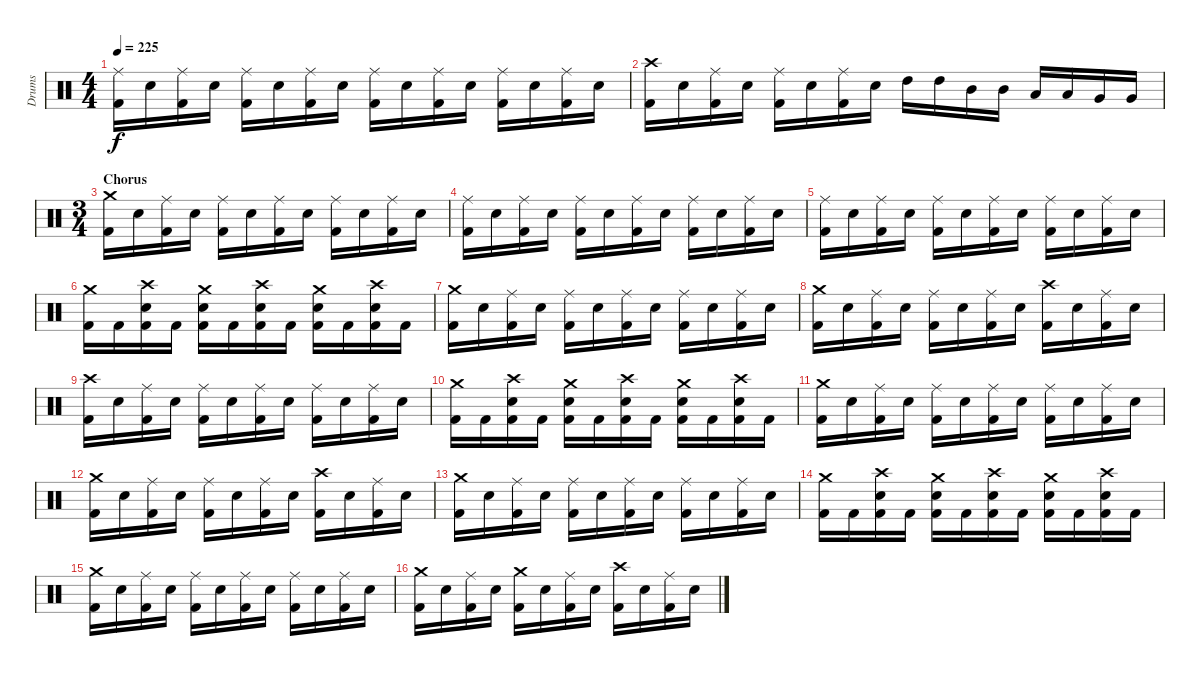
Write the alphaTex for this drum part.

\track ("Drums" "Drums") {instrument percussion}
\staff {score}
\articulation defaults
\ts (4 4)
\tempo 225
\clef neutral
\ks c
("Kick (hit) 2" "Ride (middle)").16{dy f} "Electric Snare (hit)".16 ("Kick (hit) 2" "Ride (middle)").16 "Electric Snare (hit)".16 ("Kick (hit) 2" "Ride (middle)").16 "Electric Snare (hit)".16 ("Kick (hit) 2" "Ride (middle)").16 "Electric Snare (hit)".16 ("Kick (hit) 2" "Ride (middle)").16 "Electric Snare (hit)".16 ("Kick (hit) 2" "Ride (middle)").16 "Electric Snare (hit)".16 ("Kick (hit) 2" "Ride (middle)").16 "Electric Snare (hit)".16 ("Kick (hit) 2" "Ride (middle)").16 "Electric Snare (hit)".16 |
("Kick (hit) 2" "Crash high (hit)").16 "Electric Snare (hit)".16 ("Kick (hit) 2" "Ride (middle)").16 "Electric Snare (hit)".16 ("Kick (hit) 2" "Ride (middle)").16 "Electric Snare (hit)".16 ("Kick (hit) 2" "Ride (middle)").16 "Electric Snare (hit)".16 "High Tom (hit)".16 "High Tom (hit)".16 "Mid Tom (hit)".16 "Mid Tom (hit)".16 "Low Tom (hit)".16 "Low Tom (hit)".16 "Very Low Tom (hit)".16 "Very Low Tom (hit)".16 |
\ts (3 4)
\section ("" "Chorus")
("Kick (hit) 2" "Crash medium (hit)").16 "Electric Snare (hit)".16 ("Kick (hit) 2" "Ride (middle)").16 "Electric Snare (hit)".16 ("Kick (hit) 2" "Ride (middle)").16 "Electric Snare (hit)".16 ("Kick (hit) 2" "Ride (middle)").16 "Electric Snare (hit)".16 ("Kick (hit) 2" "Ride (middle)").16 "Electric Snare (hit)".16 ("Kick (hit) 2" "Ride (middle)").16 "Electric Snare (hit)".16 |
("Kick (hit) 2" "Ride (middle)").16 "Electric Snare (hit)".16 ("Kick (hit) 2" "Ride (middle)").16 "Electric Snare (hit)".16 ("Kick (hit) 2" "Ride (middle)").16 "Electric Snare (hit)".16 ("Kick (hit) 2" "Ride (middle)").16 "Electric Snare (hit)".16 ("Kick (hit) 2" "Ride (middle)").16 "Electric Snare (hit)".16 ("Kick (hit) 2" "Ride (middle)").16 "Electric Snare (hit)".16 |
("Kick (hit) 2" "Ride (middle)").16 "Electric Snare (hit)".16 ("Kick (hit) 2" "Ride (middle)").16 "Electric Snare (hit)".16 ("Kick (hit) 2" "Ride (middle)").16 "Electric Snare (hit)".16 ("Kick (hit) 2" "Ride (middle)").16 "Electric Snare (hit)".16 ("Kick (hit) 2" "Ride (middle)").16 "Electric Snare (hit)".16 ("Kick (hit) 2" "Ride (middle)").16 "Electric Snare (hit)".16 |
("Kick (hit) 2" "Crash medium (hit)").16 "Kick (hit) 2".16 ("Kick (hit) 2" "Electric Snare (hit)" "Crash high (hit)").16 "Kick (hit) 2".16 ("Kick (hit) 2" "Electric Snare (hit)" "Crash medium (hit)").16 "Kick (hit) 2".16 ("Kick (hit) 2" "Electric Snare (hit)" "Crash high (hit)").16 "Kick (hit) 2".16 ("Kick (hit) 2" "Electric Snare (hit)" "Crash medium (hit)").16 "Kick (hit) 2".16 ("Kick (hit) 2" "Electric Snare (hit)" "Crash high (hit)").16 "Kick (hit) 2".16 |
("Kick (hit) 2" "Crash medium (hit)").16 "Electric Snare (hit)".16 ("Kick (hit) 2" "Ride (middle)").16 "Electric Snare (hit)".16 ("Kick (hit) 2" "Ride (middle)").16 "Electric Snare (hit)".16 ("Kick (hit) 2" "Ride (middle)").16 "Electric Snare (hit)".16 ("Kick (hit) 2" "Ride (middle)").16 "Electric Snare (hit)".16 ("Kick (hit) 2" "Ride (middle)").16 "Electric Snare (hit)".16 |
("Kick (hit) 2" "Crash medium (hit)").16 "Electric Snare (hit)".16 ("Kick (hit) 2" "Ride (middle)").16 "Electric Snare (hit)".16 ("Kick (hit) 2" "Ride (middle)").16 "Electric Snare (hit)".16 ("Kick (hit) 2" "Ride (middle)").16 "Electric Snare (hit)".16 ("Kick (hit) 2" "Crash high (hit)").16 "Electric Snare (hit)".16 ("Kick (hit) 2" "Ride (middle)").16 "Electric Snare (hit)".16 |
("Kick (hit) 2" "Crash high (hit)").16 "Electric Snare (hit)".16 ("Kick (hit) 2" "Ride (middle)").16 "Electric Snare (hit)".16 ("Kick (hit) 2" "Ride (middle)").16 "Electric Snare (hit)".16 ("Kick (hit) 2" "Ride (middle)").16 "Electric Snare (hit)".16 ("Kick (hit) 2" "Ride (middle)").16 "Electric Snare (hit)".16 ("Kick (hit) 2" "Ride (middle)").16 "Electric Snare (hit)".16 |
("Kick (hit) 2" "Crash medium (hit)").16 "Kick (hit) 2".16 ("Kick (hit) 2" "Electric Snare (hit)" "Crash high (hit)").16 "Kick (hit) 2".16 ("Kick (hit) 2" "Electric Snare (hit)" "Crash medium (hit)").16 "Kick (hit) 2".16 ("Kick (hit) 2" "Electric Snare (hit)" "Crash high (hit)").16 "Kick (hit) 2".16 ("Kick (hit) 2" "Electric Snare (hit)" "Crash medium (hit)").16 "Kick (hit) 2".16 ("Kick (hit) 2" "Electric Snare (hit)" "Crash high (hit)").16 "Kick (hit) 2".16 |
("Kick (hit) 2" "Crash medium (hit)").16 "Electric Snare (hit)".16 ("Kick (hit) 2" "Ride (middle)").16 "Electric Snare (hit)".16 ("Kick (hit) 2" "Ride (middle)").16 "Electric Snare (hit)".16 ("Kick (hit) 2" "Ride (middle)").16 "Electric Snare (hit)".16 ("Kick (hit) 2" "Ride (middle)").16 "Electric Snare (hit)".16 ("Kick (hit) 2" "Ride (middle)").16 "Electric Snare (hit)".16 |
("Kick (hit) 2" "Crash medium (hit)").16 "Electric Snare (hit)".16 ("Kick (hit) 2" "Ride (middle)").16 "Electric Snare (hit)".16 ("Kick (hit) 2" "Ride (middle)").16 "Electric Snare (hit)".16 ("Kick (hit) 2" "Ride (middle)").16 "Electric Snare (hit)".16 ("Kick (hit) 2" "Crash high (hit)").16 "Electric Snare (hit)".16 ("Kick (hit) 2" "Ride (middle)").16 "Electric Snare (hit)".16 |
("Kick (hit) 2" "Crash medium (hit)").16 "Electric Snare (hit)".16 ("Kick (hit) 2" "Ride (middle)").16 "Electric Snare (hit)".16 ("Kick (hit) 2" "Ride (middle)").16 "Electric Snare (hit)".16 ("Kick (hit) 2" "Ride (middle)").16 "Electric Snare (hit)".16 ("Kick (hit) 2" "Ride (middle)").16 "Electric Snare (hit)".16 ("Kick (hit) 2" "Ride (middle)").16 "Electric Snare (hit)".16 |
("Kick (hit) 2" "Crash medium (hit)").16 "Kick (hit) 2".16 ("Kick (hit) 2" "Electric Snare (hit)" "Crash high (hit)").16 "Kick (hit) 2".16 ("Kick (hit) 2" "Electric Snare (hit)" "Crash medium (hit)").16 "Kick (hit) 2".16 ("Kick (hit) 2" "Electric Snare (hit)" "Crash high (hit)").16 "Kick (hit) 2".16 ("Kick (hit) 2" "Electric Snare (hit)" "Crash medium (hit)").16 "Kick (hit) 2".16 ("Kick (hit) 2" "Electric Snare (hit)" "Crash high (hit)").16 "Kick (hit) 2".16 |
("Kick (hit) 2" "Crash medium (hit)").16 "Electric Snare (hit)".16 ("Kick (hit) 2" "Ride (middle)").16 "Electric Snare (hit)".16 ("Kick (hit) 2" "Ride (middle)").16 "Electric Snare (hit)".16 ("Kick (hit) 2" "Ride (middle)").16 "Electric Snare (hit)".16 ("Kick (hit) 2" "Ride (middle)").16 "Electric Snare (hit)".16 ("Kick (hit) 2" "Ride (middle)").16 "Electric Snare (hit)".16 |
("Kick (hit) 2" "Crash medium (hit)").16 "Electric Snare (hit)".16 ("Kick (hit) 2" "Ride (middle)").16 "Electric Snare (hit)".16 ("Kick (hit) 2" "Crash medium (hit)").16 "Electric Snare (hit)".16 ("Kick (hit) 2" "Ride (middle)").16 "Electric Snare (hit)".16 ("Kick (hit) 2" "Crash high (hit)").16 "Electric Snare (hit)".16 ("Kick (hit) 2" "Ride (middle)").16 "Electric Snare (hit)".16
